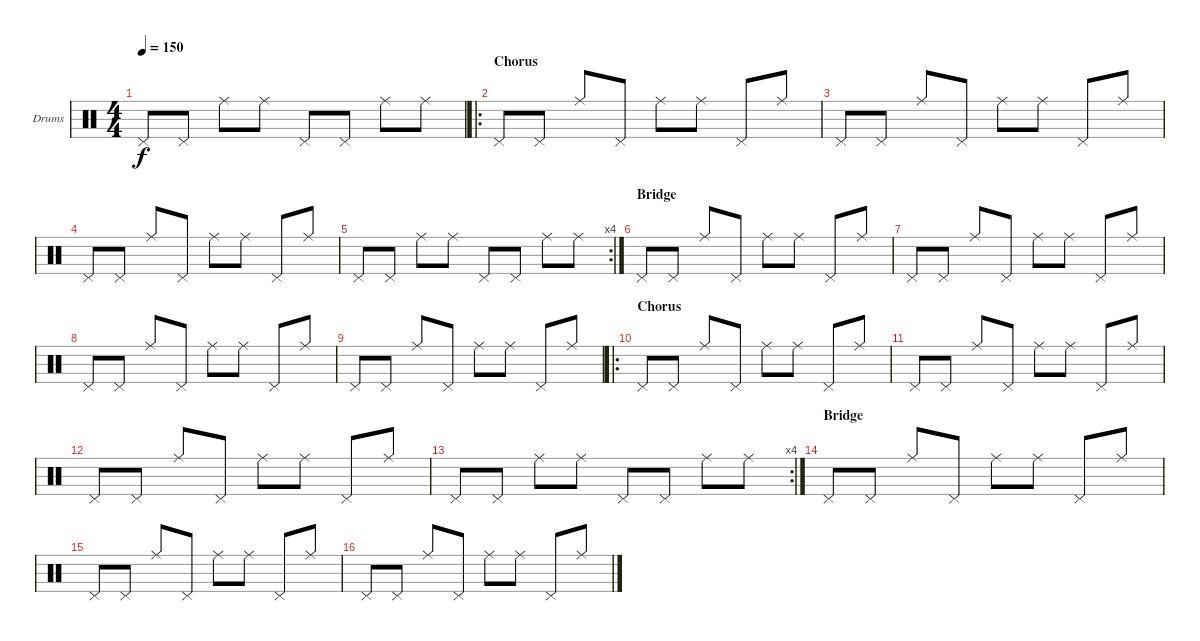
\defaultSystemsLayout 4
\bracketExtendMode groupsimilarinstruments
\firstSystemTrackNameOrientation horizontal
\otherSystemsTrackNameOrientation horizontal
\track ("Nazar" "Drums") {instrument percussion}
\staff {score}
\articulation defaults
\ts (4 4)
\tempo 150
\clef neutral
\ks c "Pedal Hi-Hat (hit)".8{dy f} "Pedal Hi-Hat (hit)".8 "Ride (middle)".8 "Ride (middle)".8 "Pedal Hi-Hat (hit)".8 "Pedal Hi-Hat (hit)".8 "Ride (middle)".8 "Ride (middle)".8
|
\ro
\section ("" "Chorus")
"Pedal Hi-Hat (hit)".8 "Pedal Hi-Hat (hit)".8 "Ride (middle)".8 "Pedal Hi-Hat (hit)".8 "Ride (middle)".8 "Ride (middle)".8 "Pedal Hi-Hat (hit)".8 "Ride (middle)".8 |
"Pedal Hi-Hat (hit)".8 "Pedal Hi-Hat (hit)".8 "Ride (middle)".8 "Pedal Hi-Hat (hit)".8 "Ride (middle)".8 "Ride (middle)".8 "Pedal Hi-Hat (hit)".8 "Ride (middle)".8 |
"Pedal Hi-Hat (hit)".8 "Pedal Hi-Hat (hit)".8 "Ride (middle)".8 "Pedal Hi-Hat (hit)".8 "Ride (middle)".8 "Ride (middle)".8 "Pedal Hi-Hat (hit)".8 "Ride (middle)".8 |
\rc 4 "Pedal Hi-Hat (hit)".8 "Pedal Hi-Hat (hit)".8 "Ride (middle)".8 "Ride (middle)".8 "Pedal Hi-Hat (hit)".8 "Pedal Hi-Hat (hit)".8 "Ride (middle)".8 "Ride (middle)".8
|
\section ("" "Bridge")
"Pedal Hi-Hat (hit)".8 "Pedal Hi-Hat (hit)".8 "Ride (middle)".8 "Pedal Hi-Hat (hit)".8 "Ride (middle)".8 "Ride (middle)".8 "Pedal Hi-Hat (hit)".8 "Ride (middle)".8 |
"Pedal Hi-Hat (hit)".8 "Pedal Hi-Hat (hit)".8 "Ride (middle)".8 "Pedal Hi-Hat (hit)".8 "Ride (middle)".8 "Ride (middle)".8 "Pedal Hi-Hat (hit)".8 "Ride (middle)".8 |
"Pedal Hi-Hat (hit)".8 "Pedal Hi-Hat (hit)".8 "Ride (middle)".8 "Pedal Hi-Hat (hit)".8 "Ride (middle)".8 "Ride (middle)".8 "Pedal Hi-Hat (hit)".8 "Ride (middle)".8 |
"Pedal Hi-Hat (hit)".8 "Pedal Hi-Hat (hit)".8 "Ride (middle)".8 "Pedal Hi-Hat (hit)".8 "Ride (middle)".8 "Ride (middle)".8 "Pedal Hi-Hat (hit)".8 "Ride (middle)".8 |
\ro
\section ("" "Chorus")
"Pedal Hi-Hat (hit)".8 "Pedal Hi-Hat (hit)".8 "Ride (middle)".8 "Pedal Hi-Hat (hit)".8 "Ride (middle)".8 "Ride (middle)".8 "Pedal Hi-Hat (hit)".8 "Ride (middle)".8 |
"Pedal Hi-Hat (hit)".8 "Pedal Hi-Hat (hit)".8 "Ride (middle)".8 "Pedal Hi-Hat (hit)".8 "Ride (middle)".8 "Ride (middle)".8 "Pedal Hi-Hat (hit)".8 "Ride (middle)".8 |
"Pedal Hi-Hat (hit)".8 "Pedal Hi-Hat (hit)".8 "Ride (middle)".8 "Pedal Hi-Hat (hit)".8 "Ride (middle)".8 "Ride (middle)".8 "Pedal Hi-Hat (hit)".8 "Ride (middle)".8 |
\rc 4 "Pedal Hi-Hat (hit)".8 "Pedal Hi-Hat (hit)".8 "Ride (middle)".8 "Ride (middle)".8 "Pedal Hi-Hat (hit)".8 "Pedal Hi-Hat (hit)".8 "Ride (middle)".8 "Ride (middle)".8
|
\section ("" "Bridge")
"Pedal Hi-Hat (hit)".8 "Pedal Hi-Hat (hit)".8 "Ride (middle)".8 "Pedal Hi-Hat (hit)".8 "Ride (middle)".8 "Ride (middle)".8 "Pedal Hi-Hat (hit)".8 "Ride (middle)".8 |
"Pedal Hi-Hat (hit)".8 "Pedal Hi-Hat (hit)".8 "Ride (middle)".8 "Pedal Hi-Hat (hit)".8 "Ride (middle)".8 "Ride (middle)".8 "Pedal Hi-Hat (hit)".8 "Ride (middle)".8 |
"Pedal Hi-Hat (hit)".8 "Pedal Hi-Hat (hit)".8 "Ride (middle)".8 "Pedal Hi-Hat (hit)".8 "Ride (middle)".8 "Ride (middle)".8 "Pedal Hi-Hat (hit)".8 "Ride (middle)".8
